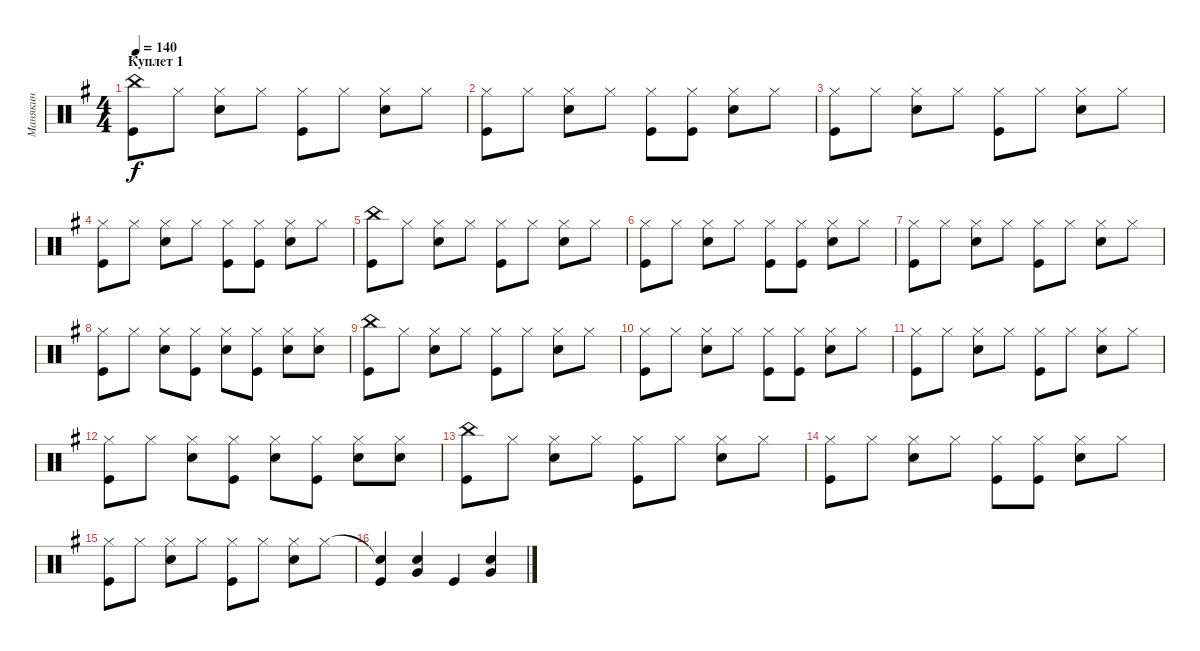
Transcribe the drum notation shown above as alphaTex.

\track ("Манякин" "Манякин") {instrument percussion}
\staff {score}
\articulation defaults
\ts (4 4)
\section ("" "Куплет 1")
\tempo 140
\clef neutral
\ks g
("China (hit)" "Kick (hit)").8{dy f} "Hi-Hat (closed)".8 ("Hi-Hat (closed)" "Snare (hit) 2").8 "Hi-Hat (closed)".8 ("Hi-Hat (closed)" "Kick (hit)").8 "Hi-Hat (closed)".8 ("Hi-Hat (closed)" "Snare (hit) 2").8 "Hi-Hat (closed)".8 |
("Hi-Hat (closed)" "Kick (hit)").8 "Hi-Hat (closed)".8 ("Hi-Hat (closed)" "Snare (hit) 2").8 "Hi-Hat (closed)".8 ("Hi-Hat (closed)" "Kick (hit)").8 ("Hi-Hat (closed)" "Kick (hit)").8 ("Hi-Hat (closed)" "Snare (hit) 2").8 "Hi-Hat (closed)".8 |
("Hi-Hat (closed)" "Kick (hit)").8 "Hi-Hat (closed)".8 ("Hi-Hat (closed)" "Snare (hit) 2").8 "Hi-Hat (closed)".8 ("Hi-Hat (closed)" "Kick (hit)").8 "Hi-Hat (closed)".8 ("Hi-Hat (closed)" "Snare (hit) 2").8 "Hi-Hat (closed)".8 |
("Hi-Hat (closed)" "Kick (hit)").8 "Hi-Hat (closed)".8 ("Hi-Hat (closed)" "Snare (hit) 2").8 "Hi-Hat (closed)".8 ("Hi-Hat (closed)" "Kick (hit)").8 ("Hi-Hat (closed)" "Kick (hit)").8 ("Hi-Hat (closed)" "Snare (hit) 2").8 "Hi-Hat (closed)".8 |
("China (hit)" "Kick (hit)").8 "Hi-Hat (closed)".8 ("Hi-Hat (closed)" "Snare (hit) 2").8 "Hi-Hat (closed)".8 ("Hi-Hat (closed)" "Kick (hit)").8 "Hi-Hat (closed)".8 ("Hi-Hat (closed)" "Snare (hit) 2").8 "Hi-Hat (closed)".8 |
("Hi-Hat (closed)" "Kick (hit)").8 "Hi-Hat (closed)".8 ("Hi-Hat (closed)" "Snare (hit) 2").8 "Hi-Hat (closed)".8 ("Hi-Hat (closed)" "Kick (hit)").8 ("Hi-Hat (closed)" "Kick (hit)").8 ("Hi-Hat (closed)" "Snare (hit) 2").8 "Hi-Hat (closed)".8 |
("Hi-Hat (closed)" "Kick (hit)").8 "Hi-Hat (closed)".8 ("Hi-Hat (closed)" "Snare (hit) 2").8 "Hi-Hat (closed)".8 ("Hi-Hat (closed)" "Kick (hit)").8 "Hi-Hat (closed)".8 ("Hi-Hat (closed)" "Snare (hit) 2").8 "Hi-Hat (closed)".8 |
("Hi-Hat (closed)" "Kick (hit)").8 "Hi-Hat (closed)".8 ("Hi-Hat (closed)" "Snare (hit) 2").8 ("Hi-Hat (closed)" "Kick (hit)").8 ("Hi-Hat (closed)" "Snare (hit) 2").8 ("Hi-Hat (closed)" "Kick (hit)").8 ("Hi-Hat (closed)" "Snare (hit) 2").8 ("Hi-Hat (closed)" "Snare (hit) 2").8 |
("China (hit)" "Kick (hit)").8 "Hi-Hat (closed)".8 ("Hi-Hat (closed)" "Snare (hit) 2").8 "Hi-Hat (closed)".8 ("Hi-Hat (closed)" "Kick (hit)").8 "Hi-Hat (closed)".8 ("Hi-Hat (closed)" "Snare (hit) 2").8 "Hi-Hat (closed)".8 |
("Hi-Hat (closed)" "Kick (hit)").8 "Hi-Hat (closed)".8 ("Hi-Hat (closed)" "Snare (hit) 2").8 "Hi-Hat (closed)".8 ("Hi-Hat (closed)" "Kick (hit)").8 ("Hi-Hat (closed)" "Kick (hit)").8 ("Hi-Hat (closed)" "Snare (hit) 2").8 "Hi-Hat (closed)".8 |
("Hi-Hat (closed)" "Kick (hit)").8 "Hi-Hat (closed)".8 ("Hi-Hat (closed)" "Snare (hit) 2").8 "Hi-Hat (closed)".8 ("Hi-Hat (closed)" "Kick (hit)").8 "Hi-Hat (closed)".8 ("Hi-Hat (closed)" "Snare (hit) 2").8 "Hi-Hat (closed)".8 |
("Hi-Hat (closed)" "Kick (hit)").8 "Hi-Hat (closed)".8 ("Hi-Hat (closed)" "Snare (hit) 2").8 ("Hi-Hat (closed)" "Kick (hit)").8 ("Hi-Hat (closed)" "Snare (hit) 2").8 ("Hi-Hat (closed)" "Kick (hit)").8 ("Hi-Hat (closed)" "Snare (hit) 2").8 ("Hi-Hat (closed)" "Snare (hit) 2").8 |
("China (hit)" "Kick (hit)").8 "Hi-Hat (closed)".8 ("Hi-Hat (closed)" "Snare (hit) 2").8 "Hi-Hat (closed)".8 ("Hi-Hat (closed)" "Kick (hit)").8 "Hi-Hat (closed)".8 ("Hi-Hat (closed)" "Snare (hit) 2").8 "Hi-Hat (closed)".8 |
("Hi-Hat (closed)" "Kick (hit)").8 "Hi-Hat (closed)".8 ("Hi-Hat (closed)" "Snare (hit) 2").8 "Hi-Hat (closed)".8 ("Hi-Hat (closed)" "Kick (hit)").8 ("Hi-Hat (closed)" "Kick (hit)").8 ("Hi-Hat (closed)" "Snare (hit) 2").8 "Hi-Hat (closed)".8 |
("Hi-Hat (closed)" "Kick (hit)").8 "Hi-Hat (closed)".8 ("Hi-Hat (closed)" "Snare (hit) 2").8 "Hi-Hat (closed)".8 ("Hi-Hat (closed)" "Kick (hit)").8 "Hi-Hat (closed)".8 ("Hi-Hat (closed)" "Snare (hit) 2").8 "Hi-Hat (closed)".8 |
("Snare (hit)"{t} "Kick (hit)").4 ("Snare (hit) 2" "Very Low Tom (hit)").4 "Kick (hit)".4 ("Snare (hit) 2" "Very Low Tom (hit)").4
